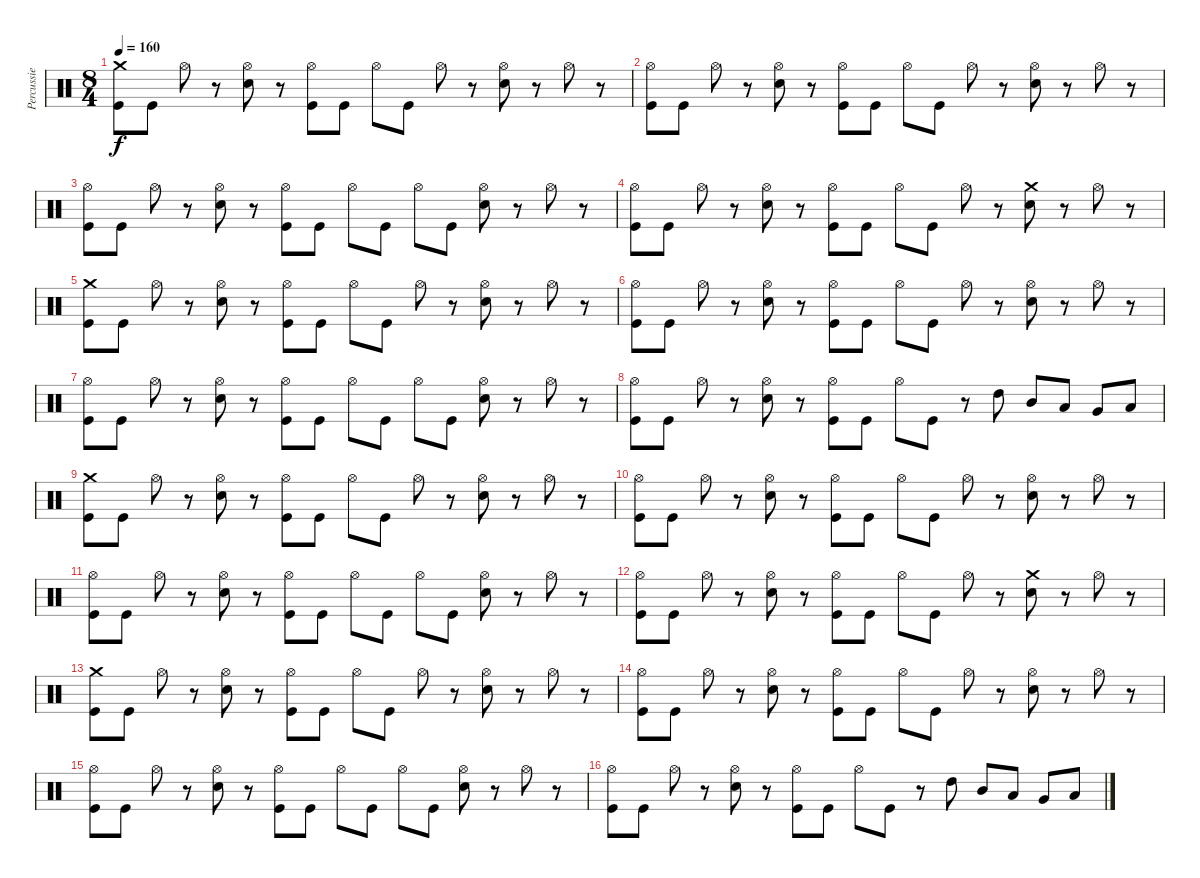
\track ("Percussie" "Percussie") {instrument percussion}
\staff {score}
\articulation defaults
\ts (8 4)
\tempo 160
\clef neutral
\ks c
("Crash medium (hit)" "Kick (hit)").8{dy f} "Kick (hit)".8 "Hi-Hat (open)".8 r.8 ("Electric Snare (hit)" "Hi-Hat (open)").8 r.8 ("Hi-Hat (open)" "Kick (hit)").8 "Kick (hit)".8 "Hi-Hat (open)".8 "Kick (hit)".8 "Hi-Hat (open)".8 r.8 ("Electric Snare (hit)" "Hi-Hat (open)").8 r.8 "Hi-Hat (open)".8 r.8 |
("Hi-Hat (open)" "Kick (hit)").8 "Kick (hit)".8 "Hi-Hat (open)".8 r.8 ("Electric Snare (hit)" "Hi-Hat (open)").8 r.8 ("Hi-Hat (open)" "Kick (hit)").8 "Kick (hit)".8 "Hi-Hat (open)".8 "Kick (hit)".8 "Hi-Hat (open)".8 r.8 ("Electric Snare (hit)" "Hi-Hat (open)").8 r.8 "Hi-Hat (open)".8 r.8 |
("Hi-Hat (open)" "Kick (hit)").8 "Kick (hit)".8 "Hi-Hat (open)".8 r.8 ("Electric Snare (hit)" "Hi-Hat (open)").8 r.8 ("Hi-Hat (open)" "Kick (hit)").8 "Kick (hit)".8 "Hi-Hat (open)".8 "Kick (hit)".8 "Hi-Hat (open)".8 "Kick (hit)".8 ("Electric Snare (hit)" "Hi-Hat (open)").8 r.8 "Hi-Hat (open)".8 r.8 |
("Hi-Hat (open)" "Kick (hit)").8 "Kick (hit)".8 "Hi-Hat (open)".8 r.8 ("Electric Snare (hit)" "Hi-Hat (open)").8 r.8 ("Hi-Hat (open)" "Kick (hit)").8 "Kick (hit)".8 "Hi-Hat (open)".8 "Kick (hit)".8 "Hi-Hat (open)".8 r.8 ("Electric Snare (hit)" "Crash medium (hit)").8 r.8 "Hi-Hat (open)".8 r.8 |
("Crash medium (hit)" "Kick (hit)").8 "Kick (hit)".8 "Hi-Hat (open)".8 r.8 ("Electric Snare (hit)" "Hi-Hat (open)").8 r.8 ("Hi-Hat (open)" "Kick (hit)").8 "Kick (hit)".8 "Hi-Hat (open)".8 "Kick (hit)".8 "Hi-Hat (open)".8 r.8 ("Electric Snare (hit)" "Hi-Hat (open)").8 r.8 "Hi-Hat (open)".8 r.8 |
("Hi-Hat (open)" "Kick (hit)").8 "Kick (hit)".8 "Hi-Hat (open)".8 r.8 ("Electric Snare (hit)" "Hi-Hat (open)").8 r.8 ("Hi-Hat (open)" "Kick (hit)").8 "Kick (hit)".8 "Hi-Hat (open)".8 "Kick (hit)".8 "Hi-Hat (open)".8 r.8 ("Electric Snare (hit)" "Hi-Hat (open)").8 r.8 "Hi-Hat (open)".8 r.8 |
("Hi-Hat (open)" "Kick (hit)").8 "Kick (hit)".8 "Hi-Hat (open)".8 r.8 ("Electric Snare (hit)" "Hi-Hat (open)").8 r.8 ("Hi-Hat (open)" "Kick (hit)").8 "Kick (hit)".8 "Hi-Hat (open)".8 "Kick (hit)".8 "Hi-Hat (open)".8 "Kick (hit)".8 ("Electric Snare (hit)" "Hi-Hat (open)").8 r.8 "Hi-Hat (open)".8 r.8 |
("Hi-Hat (open)" "Kick (hit)").8 "Kick (hit)".8 "Hi-Hat (open)".8 r.8 ("Electric Snare (hit)" "Hi-Hat (open)").8 r.8 ("Hi-Hat (open)" "Kick (hit)").8 "Kick (hit)".8 "Hi-Hat (open)".8 "Kick (hit)".8 r.8 "High Tom (hit)".8 "Mid Tom (hit)".8 "Low Tom (hit)".8 "Very Low Tom (hit)".8 "Low Floor Tom (hit)".8 |
("Crash medium (hit)" "Kick (hit)").8 "Kick (hit)".8 "Hi-Hat (open)".8 r.8 ("Electric Snare (hit)" "Hi-Hat (open)").8 r.8 ("Hi-Hat (open)" "Kick (hit)").8 "Kick (hit)".8 "Hi-Hat (open)".8 "Kick (hit)".8 "Hi-Hat (open)".8 r.8 ("Electric Snare (hit)" "Hi-Hat (open)").8 r.8 "Hi-Hat (open)".8 r.8 |
("Hi-Hat (open)" "Kick (hit)").8 "Kick (hit)".8 "Hi-Hat (open)".8 r.8 ("Electric Snare (hit)" "Hi-Hat (open)").8 r.8 ("Hi-Hat (open)" "Kick (hit)").8 "Kick (hit)".8 "Hi-Hat (open)".8 "Kick (hit)".8 "Hi-Hat (open)".8 r.8 ("Electric Snare (hit)" "Hi-Hat (open)").8 r.8 "Hi-Hat (open)".8 r.8 |
("Hi-Hat (open)" "Kick (hit)").8 "Kick (hit)".8 "Hi-Hat (open)".8 r.8 ("Electric Snare (hit)" "Hi-Hat (open)").8 r.8 ("Hi-Hat (open)" "Kick (hit)").8 "Kick (hit)".8 "Hi-Hat (open)".8 "Kick (hit)".8 "Hi-Hat (open)".8 "Kick (hit)".8 ("Electric Snare (hit)" "Hi-Hat (open)").8 r.8 "Hi-Hat (open)".8 r.8 |
("Hi-Hat (open)" "Kick (hit)").8 "Kick (hit)".8 "Hi-Hat (open)".8 r.8 ("Electric Snare (hit)" "Hi-Hat (open)").8 r.8 ("Hi-Hat (open)" "Kick (hit)").8 "Kick (hit)".8 "Hi-Hat (open)".8 "Kick (hit)".8 "Hi-Hat (open)".8 r.8 ("Electric Snare (hit)" "Crash medium (hit)").8 r.8 "Hi-Hat (open)".8 r.8 |
("Crash medium (hit)" "Kick (hit)").8 "Kick (hit)".8 "Hi-Hat (open)".8 r.8 ("Electric Snare (hit)" "Hi-Hat (open)").8 r.8 ("Hi-Hat (open)" "Kick (hit)").8 "Kick (hit)".8 "Hi-Hat (open)".8 "Kick (hit)".8 "Hi-Hat (open)".8 r.8 ("Electric Snare (hit)" "Hi-Hat (open)").8 r.8 "Hi-Hat (open)".8 r.8 |
("Hi-Hat (open)" "Kick (hit)").8 "Kick (hit)".8 "Hi-Hat (open)".8 r.8 ("Electric Snare (hit)" "Hi-Hat (open)").8 r.8 ("Hi-Hat (open)" "Kick (hit)").8 "Kick (hit)".8 "Hi-Hat (open)".8 "Kick (hit)".8 "Hi-Hat (open)".8 r.8 ("Electric Snare (hit)" "Hi-Hat (open)").8 r.8 "Hi-Hat (open)".8 r.8 |
("Hi-Hat (open)" "Kick (hit)").8 "Kick (hit)".8 "Hi-Hat (open)".8 r.8 ("Electric Snare (hit)" "Hi-Hat (open)").8 r.8 ("Hi-Hat (open)" "Kick (hit)").8 "Kick (hit)".8 "Hi-Hat (open)".8 "Kick (hit)".8 "Hi-Hat (open)".8 "Kick (hit)".8 ("Electric Snare (hit)" "Hi-Hat (open)").8 r.8 "Hi-Hat (open)".8 r.8 |
("Hi-Hat (open)" "Kick (hit)").8 "Kick (hit)".8 "Hi-Hat (open)".8 r.8 ("Electric Snare (hit)" "Hi-Hat (open)").8 r.8 ("Hi-Hat (open)" "Kick (hit)").8 "Kick (hit)".8 "Hi-Hat (open)".8 "Kick (hit)".8 r.8 "High Tom (hit)".8 "Mid Tom (hit)".8 "Low Tom (hit)".8 "Very Low Tom (hit)".8 "Low Floor Tom (hit)".8
